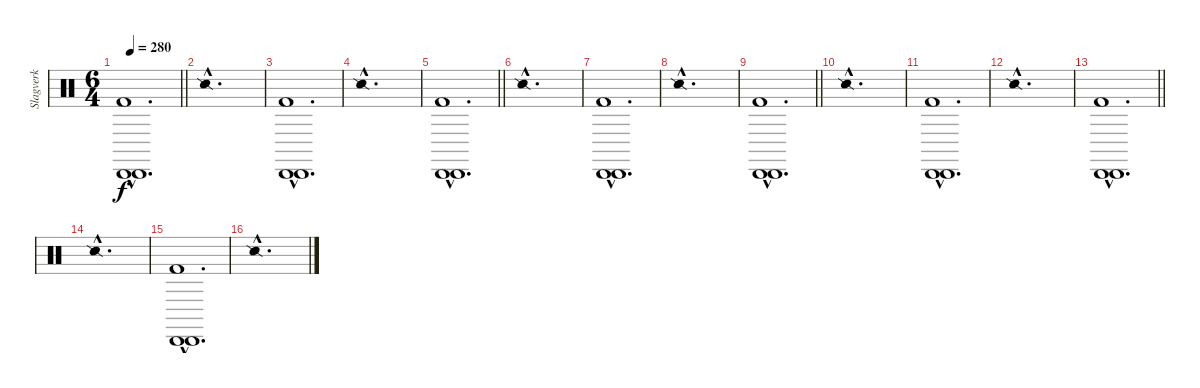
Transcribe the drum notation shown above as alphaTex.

\track ("Slagverk" "Slagverk") {instrument percussion}
\staff {score}
\articulation defaults
\ts (6 4)
\tempo 280
\clef neutral
\barLineRight lightlight
\ks c
("Cabasa (hit)"{hac} "Cabasa (hit)"{hac} "Kick (hit) 2"{hac}).1{d dy f} |
"Snare (side stick) 2"{hac}.1{d} |
("Cabasa (hit)"{hac} "Cabasa (hit)"{hac} "Kick (hit) 2"{hac}).1{d} |
"Snare (side stick) 2"{hac}.1{d} |
\barLineRight lightlight
("Cabasa (hit)"{hac} "Cabasa (hit)"{hac} "Kick (hit) 2"{hac}).1{d} |
"Snare (side stick) 2"{hac}.1{d} |
("Cabasa (hit)"{hac} "Cabasa (hit)"{hac} "Kick (hit) 2"{hac}).1{d} |
"Snare (side stick) 2"{hac}.1{d} |
\barLineRight lightlight
("Cabasa (hit)"{hac} "Cabasa (hit)"{hac} "Kick (hit) 2"{hac}).1{d} |
"Snare (side stick) 2"{hac}.1{d} |
("Cabasa (hit)"{hac} "Cabasa (hit)"{hac} "Kick (hit) 2"{hac}).1{d} |
"Snare (side stick) 2"{hac}.1{d} |
\barLineRight lightlight
("Cabasa (hit)"{hac} "Cabasa (hit)"{hac} "Kick (hit) 2"{hac}).1{d} |
"Snare (side stick) 2"{hac}.1{d} |
("Cabasa (hit)"{hac} "Cabasa (hit)"{hac} "Kick (hit) 2"{hac}).1{d} |
"Snare (side stick) 2"{hac}.1{d}
